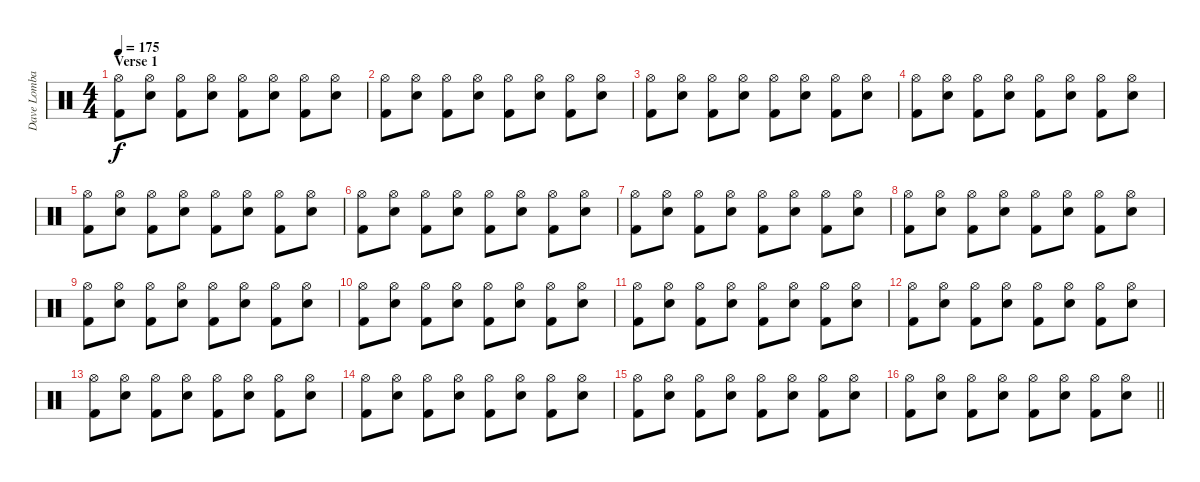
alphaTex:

\track ("Dave Lombardo" "Dave Lomba") {instrument percussion}
\staff {score}
\articulation defaults
\ts (4 4)
\section ("" "Verse 1")
\tempo 175
\clef neutral
\ks c
("Hi-Hat (open)" "Kick (hit) 2").8{dy f} ("Hi-Hat (open)" "Snare (hit) 2").8 ("Hi-Hat (open)" "Kick (hit) 2").8 ("Hi-Hat (open)" "Snare (hit) 2").8 ("Hi-Hat (open)" "Kick (hit) 2").8 ("Hi-Hat (open)" "Snare (hit) 2").8 ("Hi-Hat (open)" "Kick (hit) 2").8 ("Hi-Hat (open)" "Snare (hit) 2").8 |
("Hi-Hat (open)" "Kick (hit) 2").8 ("Hi-Hat (open)" "Snare (hit) 2").8 ("Hi-Hat (open)" "Kick (hit) 2").8 ("Hi-Hat (open)" "Snare (hit) 2").8 ("Hi-Hat (open)" "Kick (hit) 2").8 ("Hi-Hat (open)" "Snare (hit) 2").8 ("Hi-Hat (open)" "Kick (hit) 2").8 ("Hi-Hat (open)" "Snare (hit) 2").8 |
("Hi-Hat (open)" "Kick (hit) 2").8 ("Hi-Hat (open)" "Snare (hit) 2").8 ("Hi-Hat (open)" "Kick (hit) 2").8 ("Hi-Hat (open)" "Snare (hit) 2").8 ("Hi-Hat (open)" "Kick (hit) 2").8 ("Hi-Hat (open)" "Snare (hit) 2").8 ("Hi-Hat (open)" "Kick (hit) 2").8 ("Hi-Hat (open)" "Snare (hit) 2").8 |
("Hi-Hat (open)" "Kick (hit) 2").8 ("Hi-Hat (open)" "Snare (hit) 2").8 ("Hi-Hat (open)" "Kick (hit) 2").8 ("Hi-Hat (open)" "Snare (hit) 2").8 ("Hi-Hat (open)" "Kick (hit) 2").8 ("Hi-Hat (open)" "Snare (hit) 2").8 ("Hi-Hat (open)" "Kick (hit) 2").8 ("Hi-Hat (open)" "Snare (hit) 2").8 |
("Hi-Hat (open)" "Kick (hit) 2").8 ("Hi-Hat (open)" "Snare (hit) 2").8 ("Hi-Hat (open)" "Kick (hit) 2").8 ("Hi-Hat (open)" "Snare (hit) 2").8 ("Hi-Hat (open)" "Kick (hit) 2").8 ("Hi-Hat (open)" "Snare (hit) 2").8 ("Hi-Hat (open)" "Kick (hit) 2").8 ("Hi-Hat (open)" "Snare (hit) 2").8 |
("Hi-Hat (open)" "Kick (hit) 2").8 ("Hi-Hat (open)" "Snare (hit) 2").8 ("Hi-Hat (open)" "Kick (hit) 2").8 ("Hi-Hat (open)" "Snare (hit) 2").8 ("Hi-Hat (open)" "Kick (hit) 2").8 ("Hi-Hat (open)" "Snare (hit) 2").8 ("Hi-Hat (open)" "Kick (hit) 2").8 ("Hi-Hat (open)" "Snare (hit) 2").8 |
("Hi-Hat (open)" "Kick (hit) 2").8 ("Hi-Hat (open)" "Snare (hit) 2").8 ("Hi-Hat (open)" "Kick (hit) 2").8 ("Hi-Hat (open)" "Snare (hit) 2").8 ("Hi-Hat (open)" "Kick (hit) 2").8 ("Hi-Hat (open)" "Snare (hit) 2").8 ("Hi-Hat (open)" "Kick (hit) 2").8 ("Hi-Hat (open)" "Snare (hit) 2").8 |
("Hi-Hat (open)" "Kick (hit) 2").8 ("Hi-Hat (open)" "Snare (hit) 2").8 ("Hi-Hat (open)" "Kick (hit) 2").8 ("Hi-Hat (open)" "Snare (hit) 2").8 ("Hi-Hat (open)" "Kick (hit) 2").8 ("Hi-Hat (open)" "Snare (hit) 2").8 ("Hi-Hat (open)" "Kick (hit) 2").8 ("Hi-Hat (open)" "Snare (hit) 2").8 |
("Hi-Hat (open)" "Kick (hit) 2").8 ("Hi-Hat (open)" "Snare (hit) 2").8 ("Hi-Hat (open)" "Kick (hit) 2").8 ("Hi-Hat (open)" "Snare (hit) 2").8 ("Hi-Hat (open)" "Kick (hit) 2").8 ("Hi-Hat (open)" "Snare (hit) 2").8 ("Hi-Hat (open)" "Kick (hit) 2").8 ("Hi-Hat (open)" "Snare (hit) 2").8 |
("Hi-Hat (open)" "Kick (hit) 2").8 ("Hi-Hat (open)" "Snare (hit) 2").8 ("Hi-Hat (open)" "Kick (hit) 2").8 ("Hi-Hat (open)" "Snare (hit) 2").8 ("Hi-Hat (open)" "Kick (hit) 2").8 ("Hi-Hat (open)" "Snare (hit) 2").8 ("Hi-Hat (open)" "Kick (hit) 2").8 ("Hi-Hat (open)" "Snare (hit) 2").8 |
("Hi-Hat (open)" "Kick (hit) 2").8 ("Hi-Hat (open)" "Snare (hit) 2").8 ("Hi-Hat (open)" "Kick (hit) 2").8 ("Hi-Hat (open)" "Snare (hit) 2").8 ("Hi-Hat (open)" "Kick (hit) 2").8 ("Hi-Hat (open)" "Snare (hit) 2").8 ("Hi-Hat (open)" "Kick (hit) 2").8 ("Hi-Hat (open)" "Snare (hit) 2").8 |
("Hi-Hat (open)" "Kick (hit) 2").8 ("Hi-Hat (open)" "Snare (hit) 2").8 ("Hi-Hat (open)" "Kick (hit) 2").8 ("Hi-Hat (open)" "Snare (hit) 2").8 ("Hi-Hat (open)" "Kick (hit) 2").8 ("Hi-Hat (open)" "Snare (hit) 2").8 ("Hi-Hat (open)" "Kick (hit) 2").8 ("Hi-Hat (open)" "Snare (hit) 2").8 |
("Hi-Hat (open)" "Kick (hit) 2").8 ("Hi-Hat (open)" "Snare (hit) 2").8 ("Hi-Hat (open)" "Kick (hit) 2").8 ("Hi-Hat (open)" "Snare (hit) 2").8 ("Hi-Hat (open)" "Kick (hit) 2").8 ("Hi-Hat (open)" "Snare (hit) 2").8 ("Hi-Hat (open)" "Kick (hit) 2").8 ("Hi-Hat (open)" "Snare (hit) 2").8 |
("Hi-Hat (open)" "Kick (hit) 2").8 ("Hi-Hat (open)" "Snare (hit) 2").8 ("Hi-Hat (open)" "Kick (hit) 2").8 ("Hi-Hat (open)" "Snare (hit) 2").8 ("Hi-Hat (open)" "Kick (hit) 2").8 ("Hi-Hat (open)" "Snare (hit) 2").8 ("Hi-Hat (open)" "Kick (hit) 2").8 ("Hi-Hat (open)" "Snare (hit) 2").8 |
("Hi-Hat (open)" "Kick (hit) 2").8 ("Hi-Hat (open)" "Snare (hit) 2").8 ("Hi-Hat (open)" "Kick (hit) 2").8 ("Hi-Hat (open)" "Snare (hit) 2").8 ("Hi-Hat (open)" "Kick (hit) 2").8 ("Hi-Hat (open)" "Snare (hit) 2").8 ("Hi-Hat (open)" "Kick (hit) 2").8 ("Hi-Hat (open)" "Snare (hit) 2").8 |
\barLineRight lightlight
("Hi-Hat (open)" "Kick (hit) 2").8 ("Hi-Hat (open)" "Snare (hit) 2").8 ("Hi-Hat (open)" "Kick (hit) 2").8 ("Hi-Hat (open)" "Snare (hit) 2").8 ("Hi-Hat (open)" "Kick (hit) 2").8 ("Hi-Hat (open)" "Snare (hit) 2").8 ("Hi-Hat (open)" "Kick (hit) 2").8 ("Hi-Hat (open)" "Snare (hit) 2").8
